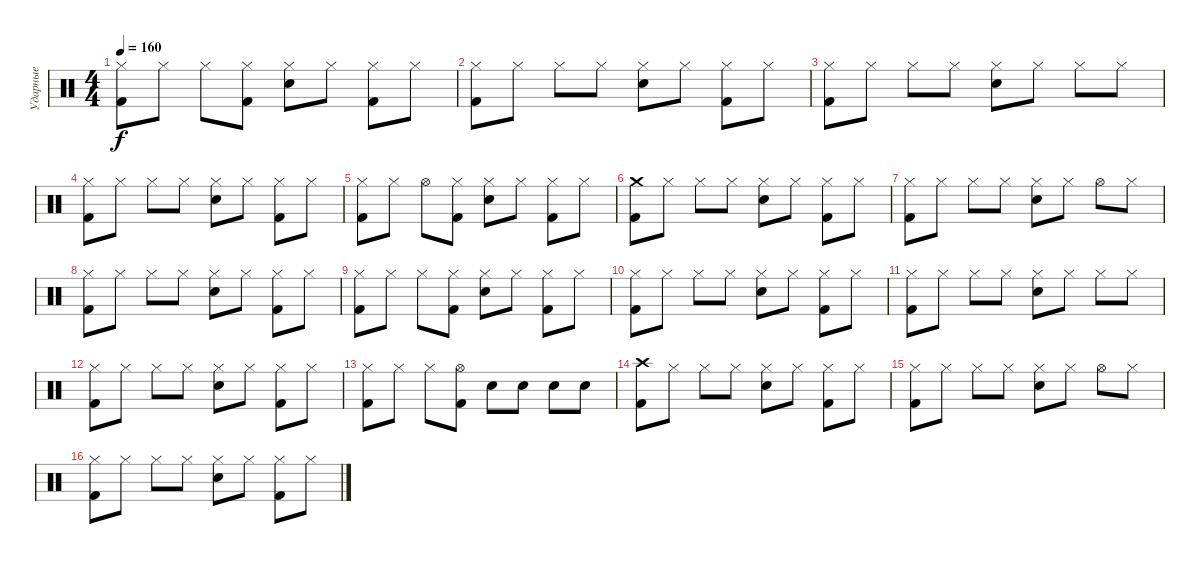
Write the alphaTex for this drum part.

\track ("Ударные" "Ударные") {instrument percussion}
\staff {score}
\articulation defaults
\ts (4 4)
\tempo 160
\clef neutral
\ks c
("Kick (hit) 2" "Hi-Hat (closed)").8{dy f} "Hi-Hat (closed)".8 "Hi-Hat (closed)".8 ("Kick (hit) 2" "Hi-Hat (closed)").8 ("Electric Snare (hit)" "Hi-Hat (closed)").8 "Hi-Hat (closed)".8 ("Kick (hit) 2" "Hi-Hat (closed)").8 "Hi-Hat (closed)".8 |
("Kick (hit) 2" "Hi-Hat (closed)").8 "Hi-Hat (closed)".8 "Hi-Hat (closed)".8 "Hi-Hat (closed)".8 ("Electric Snare (hit)" "Hi-Hat (closed)").8 "Hi-Hat (closed)".8 ("Kick (hit) 2" "Hi-Hat (closed)").8 "Hi-Hat (closed)".8 |
("Kick (hit) 2" "Hi-Hat (closed)").8 "Hi-Hat (closed)".8 "Hi-Hat (closed)".8 "Hi-Hat (closed)".8 ("Electric Snare (hit)" "Hi-Hat (closed)").8 "Hi-Hat (closed)".8 "Hi-Hat (closed)".8 "Hi-Hat (closed)".8 |
("Kick (hit) 2" "Hi-Hat (closed)").8 "Hi-Hat (closed)".8 "Hi-Hat (closed)".8 "Hi-Hat (closed)".8 ("Electric Snare (hit)" "Hi-Hat (closed)").8 "Hi-Hat (closed)".8 ("Kick (hit) 2" "Hi-Hat (closed)").8 "Hi-Hat (closed)".8 |
("Kick (hit) 2" "Hi-Hat (closed)").8 "Hi-Hat (closed)".8 "Hi-Hat (open)".8 ("Kick (hit) 2" "Hi-Hat (closed)").8 ("Electric Snare (hit)" "Hi-Hat (closed)").8 "Hi-Hat (closed)".8 ("Kick (hit) 2" "Hi-Hat (closed)").8 "Hi-Hat (closed)".8 |
("Kick (hit) 2" "Crash medium (hit)").8 "Hi-Hat (closed)".8 "Hi-Hat (closed)".8 "Hi-Hat (closed)".8 ("Electric Snare (hit)" "Hi-Hat (closed)").8 "Hi-Hat (closed)".8 ("Kick (hit) 2" "Hi-Hat (closed)").8 "Hi-Hat (closed)".8 |
("Kick (hit) 2" "Hi-Hat (closed)").8 "Hi-Hat (closed)".8 "Hi-Hat (closed)".8 "Hi-Hat (closed)".8 ("Electric Snare (hit)" "Hi-Hat (closed)").8 "Hi-Hat (closed)".8 "Hi-Hat (open)".8 "Hi-Hat (closed)".8 |
("Kick (hit) 2" "Hi-Hat (closed)").8 "Hi-Hat (closed)".8 "Hi-Hat (closed)".8 "Hi-Hat (closed)".8 ("Electric Snare (hit)" "Hi-Hat (closed)").8 "Hi-Hat (closed)".8 ("Kick (hit) 2" "Hi-Hat (closed)").8 "Hi-Hat (closed)".8 |
("Kick (hit) 2" "Hi-Hat (closed)").8 "Hi-Hat (closed)".8 "Hi-Hat (closed)".8 ("Kick (hit) 2" "Hi-Hat (closed)").8 ("Electric Snare (hit)" "Hi-Hat (closed)").8 "Hi-Hat (closed)".8 ("Kick (hit) 2" "Hi-Hat (closed)").8 "Hi-Hat (closed)".8 |
("Kick (hit) 2" "Hi-Hat (closed)").8 "Hi-Hat (closed)".8 "Hi-Hat (closed)".8 "Hi-Hat (closed)".8 ("Electric Snare (hit)" "Hi-Hat (closed)").8 "Hi-Hat (closed)".8 ("Kick (hit) 2" "Hi-Hat (closed)").8 "Hi-Hat (closed)".8 |
("Kick (hit) 2" "Hi-Hat (closed)").8 "Hi-Hat (closed)".8 "Hi-Hat (closed)".8 "Hi-Hat (closed)".8 ("Electric Snare (hit)" "Hi-Hat (closed)").8 "Hi-Hat (closed)".8 "Hi-Hat (closed)".8 "Hi-Hat (closed)".8 |
("Kick (hit) 2" "Hi-Hat (closed)").8 "Hi-Hat (closed)".8 "Hi-Hat (closed)".8 "Hi-Hat (closed)".8 ("Electric Snare (hit)" "Hi-Hat (closed)").8 "Hi-Hat (closed)".8 ("Kick (hit) 2" "Hi-Hat (closed)").8 "Hi-Hat (closed)".8 |
("Kick (hit) 2" "Hi-Hat (closed)").8 "Hi-Hat (closed)".8 "Hi-Hat (closed)".8 ("Kick (hit) 2" "Hi-Hat (open)").8 "Electric Snare (hit)".8 "Electric Snare (hit)".8 "Electric Snare (hit)".8 "Electric Snare (hit)".8 |
("Kick (hit) 2" "Crash high (hit)").8 "Hi-Hat (closed)".8 "Hi-Hat (closed)".8 "Hi-Hat (closed)".8 ("Electric Snare (hit)" "Hi-Hat (closed)").8 "Hi-Hat (closed)".8 ("Kick (hit) 2" "Hi-Hat (closed)").8 "Hi-Hat (closed)".8 |
("Kick (hit) 2" "Hi-Hat (closed)").8 "Hi-Hat (closed)".8 "Hi-Hat (closed)".8 "Hi-Hat (closed)".8 ("Electric Snare (hit)" "Hi-Hat (closed)").8 "Hi-Hat (closed)".8 "Hi-Hat (open)".8 "Hi-Hat (closed)".8 |
("Kick (hit) 2" "Hi-Hat (closed)").8 "Hi-Hat (closed)".8 "Hi-Hat (closed)".8 "Hi-Hat (closed)".8 ("Electric Snare (hit)" "Hi-Hat (closed)").8 "Hi-Hat (closed)".8 ("Kick (hit) 2" "Hi-Hat (closed)").8 "Hi-Hat (closed)".8
